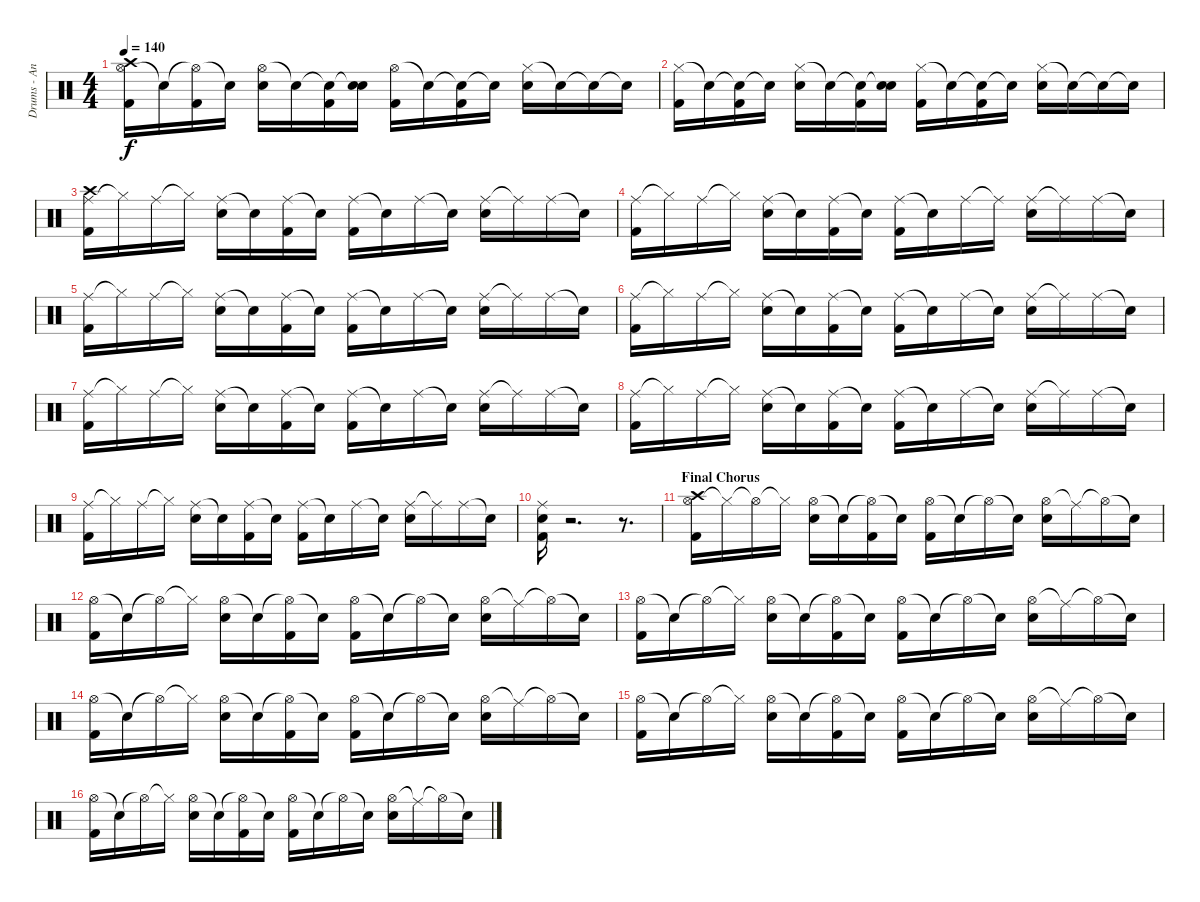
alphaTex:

\track ("Drums - Andy Strachan" "Drums - An") {instrument percussion}
\staff {score}
\articulation defaults
\ts (4 4)
\tempo 140
\clef neutral
\ks c
("Hi-Hat (open)" "Kick (hit) 2" "Crash high (hit)").16{dy f} "Snare (hit)"{t}.16 ("Hi-Hat (open)"{t} "Kick (hit) 2").16 "Snare (hit)"{t}.16 ("Hi-Hat (open)" "Electric Snare (hit)").16 "Snare (hit)"{t}.16 ("Snare (hit)"{t} "Kick (hit) 2").16 ("Snare (hit)"{t} "Electric Snare (hit)").16 ("Hi-Hat (open)" "Kick (hit) 2").16 "Snare (hit)"{t}.16 ("Snare (hit)"{t} "Kick (hit) 2").16 "Snare (hit)"{t}.16 ("Hi-Hat (closed)" "Electric Snare (hit)").16 "Snare (hit)"{t}.16 "Snare (hit)"{t}.16 "Snare (hit)"{t}.16 |
("Hi-Hat (closed)" "Kick (hit) 2").16 "Snare (hit)"{t}.16 ("Snare (hit)"{t} "Kick (hit) 2").16 "Snare (hit)"{t}.16 ("Hi-Hat (closed)" "Electric Snare (hit)").16 "Snare (hit)"{t}.16 ("Snare (hit)"{t} "Kick (hit) 2").16 ("Snare (hit)"{t} "Electric Snare (hit)").16 ("Hi-Hat (closed)" "Kick (hit) 2").16 "Snare (hit)"{t}.16 ("Snare (hit)"{t} "Kick (hit) 2").16 "Snare (hit)"{t}.16 ("Hi-Hat (closed)" "Electric Snare (hit)").16 "Snare (hit)"{t}.16 "Snare (hit)"{t}.16 "Snare (hit)"{t}.16 |
("Ride (middle)" "Kick (hit) 2" "Crash high (hit)").16 "Hi-Hat (closed)"{t}.16 "Ride (middle)".16 "Hi-Hat (closed)"{t}.16 ("Ride (middle)" "Electric Snare (hit)").16 "Snare (hit)"{t}.16 ("Ride (middle)" "Kick (hit) 2").16 "Snare (hit)"{t}.16 ("Ride (middle)" "Kick (hit) 2").16 "Snare (hit)"{t}.16 "Ride (middle)".16 "Snare (hit)"{t}.16 ("Ride (middle)" "Electric Snare (hit)").16 "Ride (middle)"{t}.16 "Ride (middle)".16 "Snare (hit)"{t}.16 |
("Ride (middle)" "Kick (hit) 2").16 "Hi-Hat (closed)"{t}.16 "Ride (middle)".16 "Hi-Hat (closed)"{t}.16 ("Ride (middle)" "Electric Snare (hit)").16 "Snare (hit)"{t}.16 ("Ride (middle)" "Kick (hit) 2").16 "Snare (hit)"{t}.16 ("Ride (middle)" "Kick (hit) 2").16 "Snare (hit)"{t}.16 "Ride (middle)".16 "Ride (middle)"{t}.16 ("Ride (middle)" "Electric Snare (hit)").16 "Ride (middle)"{t}.16 "Ride (middle)".16 "Snare (hit)"{t}.16 |
("Ride (middle)" "Kick (hit) 2").16 "Hi-Hat (closed)"{t}.16 "Ride (middle)".16 "Hi-Hat (closed)"{t}.16 ("Ride (middle)" "Electric Snare (hit)").16 "Snare (hit)"{t}.16 ("Ride (middle)" "Kick (hit) 2").16 "Snare (hit)"{t}.16 ("Ride (middle)" "Kick (hit) 2").16 "Snare (hit)"{t}.16 "Ride (middle)".16 "Snare (hit)"{t}.16 ("Ride (middle)" "Electric Snare (hit)").16 "Ride (middle)"{t}.16 "Ride (middle)".16 "Snare (hit)"{t}.16 |
("Ride (middle)" "Kick (hit) 2").16 "Hi-Hat (closed)"{t}.16 "Ride (middle)".16 "Hi-Hat (closed)"{t}.16 ("Ride (middle)" "Electric Snare (hit)").16 "Snare (hit)"{t}.16 ("Ride (middle)" "Kick (hit) 2").16 "Snare (hit)"{t}.16 ("Ride (middle)" "Kick (hit) 2").16 "Snare (hit)"{t}.16 "Ride (middle)".16 "Snare (hit)"{t}.16 ("Ride (middle)" "Electric Snare (hit)").16 "Ride (middle)"{t}.16 "Ride (middle)".16 "Snare (hit)"{t}.16 |
("Ride (middle)" "Kick (hit) 2").16 "Hi-Hat (closed)"{t}.16 "Ride (middle)".16 "Hi-Hat (closed)"{t}.16 ("Ride (middle)" "Electric Snare (hit)").16 "Snare (hit)"{t}.16 ("Ride (middle)" "Kick (hit) 2").16 "Snare (hit)"{t}.16 ("Ride (middle)" "Kick (hit) 2").16 "Snare (hit)"{t}.16 "Ride (middle)".16 "Snare (hit)"{t}.16 ("Ride (middle)" "Electric Snare (hit)").16 "Ride (middle)"{t}.16 "Ride (middle)".16 "Snare (hit)"{t}.16 |
("Ride (middle)" "Kick (hit) 2").16 "Hi-Hat (closed)"{t}.16 "Ride (middle)".16 "Hi-Hat (closed)"{t}.16 ("Ride (middle)" "Electric Snare (hit)").16 "Snare (hit)"{t}.16 ("Ride (middle)" "Kick (hit) 2").16 "Snare (hit)"{t}.16 ("Ride (middle)" "Kick (hit) 2").16 "Snare (hit)"{t}.16 "Ride (middle)".16 "Snare (hit)"{t}.16 ("Ride (middle)" "Electric Snare (hit)").16 "Ride (middle)"{t}.16 "Ride (middle)".16 "Snare (hit)"{t}.16 |
("Ride (middle)" "Kick (hit) 2").16 "Hi-Hat (closed)"{t}.16 "Ride (middle)".16 "Hi-Hat (closed)"{t}.16 ("Ride (middle)" "Electric Snare (hit)").16 "Snare (hit)"{t}.16 ("Ride (middle)" "Kick (hit) 2").16 "Snare (hit)"{t}.16 ("Ride (middle)" "Kick (hit) 2").16 "Snare (hit)"{t}.16 "Ride (middle)".16 "Snare (hit)"{t}.16 ("Ride (middle)" "Electric Snare (hit)").16 "Ride (middle)"{t}.16 "Ride (middle)".16 "Snare (hit)"{t}.16 |
("Ride (middle)" "Kick (hit) 2" "Electric Snare (hit)").16 r.2{d} r.8{d} |
\section ("" "Final Chorus ")
("Hi-Hat (open)" "Kick (hit) 2" "Crash high (hit)").16 "Hi-Hat (closed)"{t}.16 "Hi-Hat (open)"{t}.16 "Hi-Hat (closed)"{t}.16 ("Hi-Hat (open)" "Electric Snare (hit)").16 "Snare (hit)"{t}.16 ("Hi-Hat (open)"{t} "Kick (hit) 2").16 "Snare (hit)"{t}.16 ("Hi-Hat (open)" "Kick (hit) 2").16 "Snare (hit)"{t}.16 "Hi-Hat (open)"{t}.16 "Snare (hit)"{t}.16 ("Hi-Hat (open)" "Electric Snare (hit)").16 "Ride (middle)"{t}.16 "Hi-Hat (open)"{t}.16 "Snare (hit)"{t}.16 |
("Hi-Hat (open)" "Kick (hit) 2").16 "Snare (hit)"{t}.16 "Hi-Hat (open)"{t}.16 "Hi-Hat (closed)"{t}.16 ("Hi-Hat (open)" "Electric Snare (hit)").16 "Snare (hit)"{t}.16 ("Hi-Hat (open)"{t} "Kick (hit) 2").16 "Snare (hit)"{t}.16 ("Hi-Hat (open)" "Kick (hit) 2").16 "Snare (hit)"{t}.16 "Hi-Hat (open)"{t}.16 "Snare (hit)"{t}.16 ("Hi-Hat (open)" "Electric Snare (hit)").16 "Ride (middle)"{t}.16 "Hi-Hat (open)"{t}.16 "Snare (hit)"{t}.16 |
("Hi-Hat (open)" "Kick (hit) 2").16 "Snare (hit)"{t}.16 "Hi-Hat (open)"{t}.16 "Hi-Hat (closed)"{t}.16 ("Hi-Hat (open)" "Electric Snare (hit)").16 "Snare (hit)"{t}.16 ("Hi-Hat (open)"{t} "Kick (hit) 2").16 "Snare (hit)"{t}.16 ("Hi-Hat (open)" "Kick (hit) 2").16 "Snare (hit)"{t}.16 "Hi-Hat (open)"{t}.16 "Snare (hit)"{t}.16 ("Hi-Hat (open)" "Electric Snare (hit)").16 "Ride (middle)"{t}.16 "Hi-Hat (open)"{t}.16 "Snare (hit)"{t}.16 |
("Hi-Hat (open)" "Kick (hit) 2").16 "Snare (hit)"{t}.16 "Hi-Hat (open)"{t}.16 "Hi-Hat (closed)"{t}.16 ("Hi-Hat (open)" "Electric Snare (hit)").16 "Snare (hit)"{t}.16 ("Hi-Hat (open)"{t} "Kick (hit) 2").16 "Snare (hit)"{t}.16 ("Hi-Hat (open)" "Kick (hit) 2").16 "Snare (hit)"{t}.16 "Hi-Hat (open)"{t}.16 "Snare (hit)"{t}.16 ("Hi-Hat (open)" "Electric Snare (hit)").16 "Ride (middle)"{t}.16 "Hi-Hat (open)"{t}.16 "Snare (hit)"{t}.16 |
("Hi-Hat (open)" "Kick (hit) 2").16 "Snare (hit)"{t}.16 "Hi-Hat (open)"{t}.16 "Hi-Hat (closed)"{t}.16 ("Hi-Hat (open)" "Electric Snare (hit)").16 "Snare (hit)"{t}.16 ("Hi-Hat (open)"{t} "Kick (hit) 2").16 "Snare (hit)"{t}.16 ("Hi-Hat (open)" "Kick (hit) 2").16 "Snare (hit)"{t}.16 "Hi-Hat (open)"{t}.16 "Snare (hit)"{t}.16 ("Hi-Hat (open)" "Electric Snare (hit)").16 "Ride (middle)"{t}.16 "Hi-Hat (open)"{t}.16 "Snare (hit)"{t}.16 |
("Hi-Hat (open)" "Kick (hit) 2").16 "Snare (hit)"{t}.16 "Hi-Hat (open)"{t}.16 "Hi-Hat (closed)"{t}.16 ("Hi-Hat (open)" "Electric Snare (hit)").16 "Snare (hit)"{t}.16 ("Hi-Hat (open)"{t} "Kick (hit) 2").16 "Snare (hit)"{t}.16 ("Hi-Hat (open)" "Kick (hit) 2").16 "Snare (hit)"{t}.16 "Hi-Hat (open)"{t}.16 "Snare (hit)"{t}.16 ("Hi-Hat (open)" "Electric Snare (hit)").16 "Ride (middle)"{t}.16 "Hi-Hat (open)"{t}.16 "Snare (hit)"{t}.16
